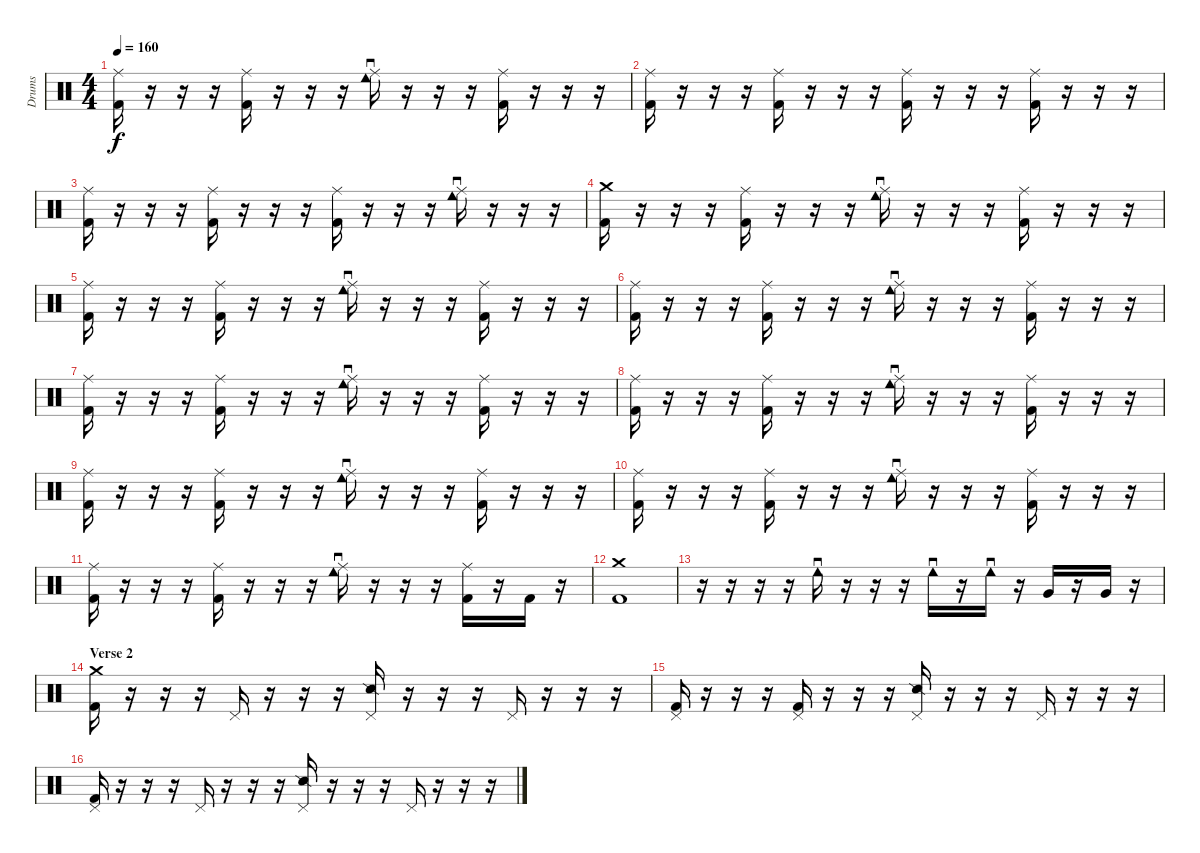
\track ("Drums" "Drums") {instrument percussion}
\staff {score}
\articulation defaults
\ts (4 4)
\tempo 160
\clef neutral
\ks c
("Ride (middle)" "Kick (hit) 2").16{dy f} r.16 r.16 r.16 ("Ride (middle)" "Kick (hit) 2").16 r.16 r.16 r.16 ("Ride (middle)" "Tambourine (roll)").16 r.16 r.16 r.16 ("Ride (middle)" "Kick (hit) 2").16 r.16 r.16 r.16 |
("Ride (middle)" "Kick (hit) 2").16 r.16 r.16 r.16 ("Ride (middle)" "Kick (hit) 2").16 r.16 r.16 r.16 ("Ride (middle)" "Kick (hit) 2").16 r.16 r.16 r.16 ("Ride (middle)" "Kick (hit) 2").16 r.16 r.16 r.16 |
("Ride (middle)" "Kick (hit) 2").16 r.16 r.16 r.16 ("Ride (middle)" "Kick (hit) 2").16 r.16 r.16 r.16 ("Ride (middle)" "Kick (hit) 2").16 r.16 r.16 r.16 ("Ride (middle)" "Tambourine (roll)").16 r.16 r.16 r.16 |
("Crash medium (hit)" "Kick (hit) 2").16 r.16 r.16 r.16 ("Ride (middle)" "Kick (hit) 2").16 r.16 r.16 r.16 ("Ride (middle)" "Tambourine (roll)").16 r.16 r.16 r.16 ("Ride (middle)" "Kick (hit) 2").16 r.16 r.16 r.16 |
("Ride (middle)" "Kick (hit) 2").16 r.16 r.16 r.16 ("Ride (middle)" "Kick (hit) 2").16 r.16 r.16 r.16 ("Ride (middle)" "Tambourine (roll)").16 r.16 r.16 r.16 ("Ride (middle)" "Kick (hit) 2").16 r.16 r.16 r.16 |
("Ride (middle)" "Kick (hit) 2").16 r.16 r.16 r.16 ("Ride (middle)" "Kick (hit) 2").16 r.16 r.16 r.16 ("Ride (middle)" "Tambourine (roll)").16 r.16 r.16 r.16 ("Ride (middle)" "Kick (hit) 2").16 r.16 r.16 r.16 |
("Ride (middle)" "Kick (hit) 2").16 r.16 r.16 r.16 ("Ride (middle)" "Kick (hit) 2").16 r.16 r.16 r.16 ("Ride (middle)" "Tambourine (roll)").16 r.16 r.16 r.16 ("Ride (middle)" "Kick (hit) 2").16 r.16 r.16 r.16 |
("Ride (middle)" "Kick (hit) 2").16 r.16 r.16 r.16 ("Ride (middle)" "Kick (hit) 2").16 r.16 r.16 r.16 ("Ride (middle)" "Tambourine (roll)").16 r.16 r.16 r.16 ("Ride (middle)" "Kick (hit) 2").16 r.16 r.16 r.16 |
("Ride (middle)" "Kick (hit) 2").16 r.16 r.16 r.16 ("Ride (middle)" "Kick (hit) 2").16 r.16 r.16 r.16 ("Ride (middle)" "Tambourine (roll)").16 r.16 r.16 r.16 ("Ride (middle)" "Kick (hit) 2").16 r.16 r.16 r.16 |
("Ride (middle)" "Kick (hit) 2").16 r.16 r.16 r.16 ("Ride (middle)" "Kick (hit) 2").16 r.16 r.16 r.16 ("Ride (middle)" "Tambourine (roll)").16 r.16 r.16 r.16 ("Ride (middle)" "Kick (hit) 2").16 r.16 r.16 r.16 |
("Ride (middle)" "Kick (hit) 2").16 r.16 r.16 r.16 ("Ride (middle)" "Kick (hit) 2").16 r.16 r.16 r.16 ("Ride (middle)" "Tambourine (roll)").16 r.16 r.16 r.16 ("Ride (middle)" "Kick (hit) 2").16 r.16 "Kick (hit) 2".16 r.16 |
("Crash medium (hit)" "Kick (hit) 2").1 |
r.16 r.16 r.16 r.16 "Tambourine (roll)".16 r.16 r.16 r.16 "Tambourine (roll)".16 r.16 "Tambourine (roll)".16 r.16 "Very Low Tom (hit)".16 r.16 "Very Low Tom (hit)".16 r.16 |
\section ("" "Verse 2")
("Crash medium (hit)" "Kick (hit) 2").16 r.16 r.16 r.16 "Pedal Hi-Hat (hit)".16 r.16 r.16 r.16 ("Pedal Hi-Hat (hit)" "Snare (side stick) 2").16 r.16 r.16 r.16 "Pedal Hi-Hat (hit)".16 r.16 r.16 r.16 |
("Pedal Hi-Hat (hit)" "Kick (hit) 2").16 r.16 r.16 r.16 ("Pedal Hi-Hat (hit)" "Kick (hit) 2").16 r.16 r.16 r.16 ("Pedal Hi-Hat (hit)" "Snare (side stick) 2").16 r.16 r.16 r.16 "Pedal Hi-Hat (hit)".16 r.16 r.16 r.16 |
("Pedal Hi-Hat (hit)" "Kick (hit) 2").16 r.16 r.16 r.16 "Pedal Hi-Hat (hit)".16 r.16 r.16 r.16 ("Pedal Hi-Hat (hit)" "Snare (side stick) 2").16 r.16 r.16 r.16 "Pedal Hi-Hat (hit)".16 r.16 r.16 r.16
